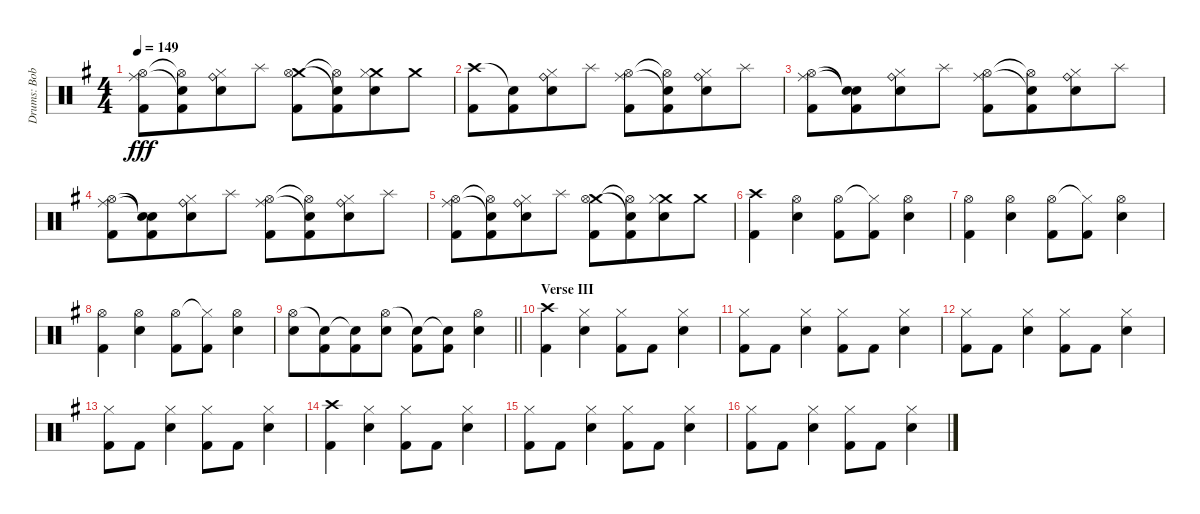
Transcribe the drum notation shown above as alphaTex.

\track ("Drums: Bobby" "Drums: Bob") {instrument percussion}
\staff {score}
\articulation defaults
\ts (4 4)
\tempo 149
\clef neutral
\ks g
("Ride (middle)" "Hi-Hat (open)" "Kick (hit) 2").8{dy fff} ("Snare (hit)"{t} "Hi-Hat (open)"{t} "Kick (hit) 2").8{beam merge} ("Ride (bell)" "Hi-Hat (closed)" "Snare (hit) 2").8 "Splash (hit)".8 ("Crash medium (hit)" "Hi-Hat (open)" "Kick (hit) 2").8 ("Snare (hit)"{t} "Hi-Hat (open)"{t} "Kick (hit) 2").8{beam merge} ("Crash medium (hit)" "Hi-Hat (closed)" "Snare (hit) 2").8 "Crash medium (hit)".8 |
("Crash high (hit)" "Kick (hit) 2").8 ("Snare (hit)"{t} "Kick (hit) 2").8{beam merge} ("Ride (bell)" "Hi-Hat (closed)" "Snare (hit) 2").8 "Splash (hit)".8 ("Ride (middle)" "Hi-Hat (open)" "Kick (hit) 2").8 ("Snare (hit)"{t} "Hi-Hat (open)"{t} "Kick (hit) 2").8{beam merge} ("Ride (bell)" "Hi-Hat (closed)" "Snare (hit) 2").8 "Splash (hit)".8 |
("Ride (middle)" "Hi-Hat (open)" "Kick (hit) 2").8 ("Snare (hit)"{t} "Snare (hit)"{t} "Kick (hit) 2").8{beam merge} ("Ride (bell)" "Hi-Hat (closed)" "Snare (hit) 2").8 "Splash (hit)".8 ("Ride (middle)" "Hi-Hat (open)" "Kick (hit) 2").8 ("Snare (hit)"{t} "Hi-Hat (open)"{t} "Kick (hit) 2").8{beam merge} ("Ride (bell)" "Hi-Hat (closed)" "Snare (hit) 2").8 "Splash (hit)".8 |
("Ride (middle)" "Hi-Hat (open)" "Kick (hit) 2").8 ("Snare (hit)"{t} "Snare (hit)"{t} "Kick (hit) 2").8{beam merge} ("Ride (bell)" "Hi-Hat (closed)" "Snare (hit) 2").8 "Splash (hit)".8 ("Ride (middle)" "Hi-Hat (open)" "Kick (hit) 2").8 ("Snare (hit)"{t} "Hi-Hat (open)"{t} "Kick (hit) 2").8{beam merge} ("Ride (bell)" "Hi-Hat (closed)" "Snare (hit) 2").8 "Splash (hit)".8 |
("Ride (middle)" "Hi-Hat (open)" "Kick (hit) 2").8 ("Snare (hit)"{t} "Hi-Hat (open)"{t} "Kick (hit) 2").8{beam merge} ("Ride (bell)" "Hi-Hat (closed)" "Snare (hit) 2").8 "Splash (hit)".8 ("Crash medium (hit)" "Hi-Hat (open)" "Kick (hit) 2").8 ("Snare (hit)"{t} "Hi-Hat (open)"{t} "Kick (hit) 2").8{beam merge} ("Crash medium (hit)" "Hi-Hat (closed)" "Snare (hit) 2").8 "Crash medium (hit)".8 |
("Crash high (hit)" "Kick (hit) 2").4{beam merge} ("Hi-Hat (open)" "Snare (hit) 2").4 ("Hi-Hat (open)" "Kick (hit) 2").8 ("Hi-Hat (closed)"{t} "Kick (hit) 2").8{beam merge} ("Hi-Hat (open)" "Snare (hit) 2").4 |
("Hi-Hat (open)" "Kick (hit) 2").4{beam merge} ("Hi-Hat (open)" "Snare (hit) 2").4 ("Hi-Hat (open)" "Kick (hit) 2").8 ("Hi-Hat (closed)"{t} "Kick (hit) 2").8{beam merge} ("Hi-Hat (open)" "Snare (hit) 2").4 |
("Hi-Hat (open)" "Kick (hit) 2").4{beam merge} ("Hi-Hat (open)" "Snare (hit) 2").4 ("Hi-Hat (open)" "Kick (hit) 2").8 ("Hi-Hat (closed)"{t} "Kick (hit) 2").8{beam merge} ("Hi-Hat (open)" "Snare (hit) 2").4 |
\barLineRight lightlight
("Hi-Hat (open)" "Snare (hit) 2").8 ("Snare (hit)"{t} "Kick (hit) 2").8{beam merge} ("Snare (hit)"{t} "Kick (hit) 2").8{beam merge} ("Hi-Hat (open)" "Snare (hit) 2").8 ("Snare (hit)"{t} "Kick (hit) 2").8 ("Snare (hit)"{t} "Kick (hit) 2").8{beam merge} ("Hi-Hat (open)" "Snare (hit) 2").4 |
\section ("" "Verse III")
("Crash high (hit)" "Kick (hit) 2").4{beam merge} ("Hi-Hat (closed)" "Snare (hit) 2").4 ("Hi-Hat (closed)" "Kick (hit) 2").8 "Kick (hit) 2".8{beam merge} ("Hi-Hat (closed)" "Snare (hit) 2").4 |
("Hi-Hat (closed)" "Kick (hit) 2").8 "Kick (hit) 2".8{beam merge} ("Hi-Hat (closed)" "Snare (hit) 2").4 ("Hi-Hat (closed)" "Kick (hit) 2").8 "Kick (hit) 2".8{beam merge} ("Hi-Hat (closed)" "Snare (hit) 2").4 |
("Hi-Hat (closed)" "Kick (hit) 2").8 "Kick (hit) 2".8{beam merge} ("Hi-Hat (closed)" "Snare (hit) 2").4 ("Hi-Hat (closed)" "Kick (hit) 2").8 "Kick (hit) 2".8{beam merge} ("Hi-Hat (closed)" "Snare (hit) 2").4 |
("Hi-Hat (closed)" "Kick (hit) 2").8 "Kick (hit) 2".8{beam merge} ("Hi-Hat (closed)" "Snare (hit) 2").4 ("Hi-Hat (closed)" "Kick (hit) 2").8 "Kick (hit) 2".8{beam merge} ("Hi-Hat (closed)" "Snare (hit) 2").4 |
("Crash high (hit)" "Kick (hit) 2").4{beam merge} ("Hi-Hat (closed)" "Snare (hit) 2").4 ("Hi-Hat (closed)" "Kick (hit) 2").8 "Kick (hit) 2".8{beam merge} ("Hi-Hat (closed)" "Snare (hit) 2").4 |
("Hi-Hat (closed)" "Kick (hit) 2").8 "Kick (hit) 2".8{beam merge} ("Hi-Hat (closed)" "Snare (hit) 2").4 ("Hi-Hat (closed)" "Kick (hit) 2").8 "Kick (hit) 2".8{beam merge} ("Hi-Hat (closed)" "Snare (hit) 2").4 |
("Hi-Hat (closed)" "Kick (hit) 2").8 "Kick (hit) 2".8{beam merge} ("Hi-Hat (closed)" "Snare (hit) 2").4 ("Hi-Hat (closed)" "Kick (hit) 2").8 "Kick (hit) 2".8{beam merge} ("Hi-Hat (closed)" "Snare (hit) 2").4
